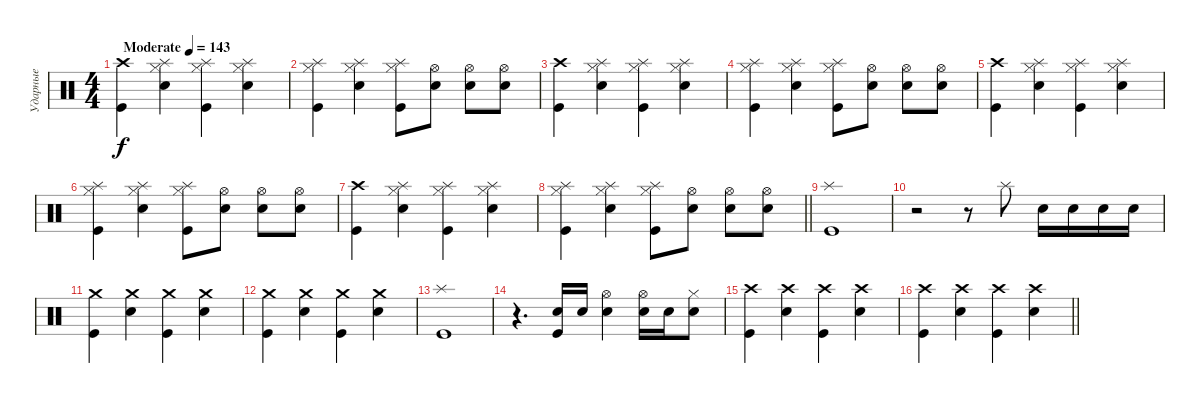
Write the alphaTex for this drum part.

\track ("Ударные" "Ударные") {instrument percussion}
\staff {score}
\articulation defaults
\ts (4 4)
\tempo (143 "Moderate")
\clef neutral
\ks c
("Crash high (hit)" "Kick (hit)").4{dy f} ("Splash (hit)" "Hi-Hat (closed)" "Snare (hit) 2").4 ("Splash (hit)" "Hi-Hat (closed)" "Kick (hit)").4 ("Splash (hit)" "Hi-Hat (closed)" "Snare (hit) 2").4 |
("Splash (hit)" "Hi-Hat (closed)" "Kick (hit)").4 ("Splash (hit)" "Hi-Hat (closed)" "Snare (hit) 2").4 ("Splash (hit)" "Hi-Hat (closed)" "Kick (hit)").8 ("Hi-Hat (open)" "Snare (hit) 2").8 ("Hi-Hat (open)" "Snare (hit) 2").8 ("Hi-Hat (open)" "Snare (hit) 2").8 |
("Crash high (hit)" "Kick (hit)").4 ("Splash (hit)" "Hi-Hat (closed)" "Snare (hit) 2").4 ("Splash (hit)" "Hi-Hat (closed)" "Kick (hit)").4 ("Splash (hit)" "Hi-Hat (closed)" "Snare (hit) 2").4 |
("Splash (hit)" "Hi-Hat (closed)" "Kick (hit)").4 ("Splash (hit)" "Hi-Hat (closed)" "Snare (hit) 2").4 ("Splash (hit)" "Hi-Hat (closed)" "Kick (hit)").8 ("Hi-Hat (open)" "Snare (hit) 2").8 ("Hi-Hat (open)" "Snare (hit) 2").8 ("Hi-Hat (open)" "Snare (hit) 2").8 |
("Crash high (hit)" "Kick (hit)").4 ("Splash (hit)" "Hi-Hat (closed)" "Snare (hit) 2").4 ("Splash (hit)" "Hi-Hat (closed)" "Kick (hit)").4 ("Splash (hit)" "Hi-Hat (closed)" "Snare (hit) 2").4 |
("Splash (hit)" "Hi-Hat (closed)" "Kick (hit)").4 ("Splash (hit)" "Hi-Hat (closed)" "Snare (hit) 2").4 ("Splash (hit)" "Hi-Hat (closed)" "Kick (hit)").8 ("Hi-Hat (open)" "Snare (hit) 2").8 ("Hi-Hat (open)" "Snare (hit) 2").8 ("Hi-Hat (open)" "Snare (hit) 2").8 |
("Crash high (hit)" "Kick (hit)").4 ("Splash (hit)" "Hi-Hat (closed)" "Snare (hit) 2").4 ("Splash (hit)" "Hi-Hat (closed)" "Kick (hit)").4 ("Splash (hit)" "Hi-Hat (closed)" "Snare (hit) 2").4 |
\barLineRight lightlight
("Splash (hit)" "Hi-Hat (closed)" "Kick (hit)").4 ("Splash (hit)" "Hi-Hat (closed)" "Snare (hit) 2").4 ("Splash (hit)" "Hi-Hat (closed)" "Kick (hit)").8 ("Hi-Hat (open)" "Snare (hit) 2").8 ("Hi-Hat (open)" "Snare (hit) 2").8 ("Hi-Hat (open)" "Snare (hit) 2").8 |
("Splash (hit)" "Kick (hit)").1 |
r.2 r.8 "Splash (hit)".8 "Snare (hit) 2".16 "Snare (hit) 2".16 "Snare (hit) 2".16 "Snare (hit) 2".16 |
("Crash medium (hit)" "Kick (hit)").4 ("Crash medium (hit)" "Snare (hit) 2").4 ("Crash medium (hit)" "Kick (hit)").4 ("Crash medium (hit)" "Snare (hit) 2").4 |
("Crash medium (hit)" "Kick (hit)").4 ("Crash medium (hit)" "Snare (hit) 2").4 ("Crash medium (hit)" "Kick (hit)").4 ("Crash medium (hit)" "Snare (hit) 2").4 |
("Splash (hit)" "Kick (hit)").1 |
r.4{d} ("Snare (hit) 2" "Kick (hit)").16 "Snare (hit) 2".16 ("Hi-Hat (open)" "Snare (hit) 2").4 ("Hi-Hat (open)" "Snare (hit) 2").16 "Snare (hit) 2".16 ("Hi-Hat (closed)" "Snare (hit) 2").8 |
("Crash high (hit)" "Kick (hit)").4 ("Crash high (hit)" "Snare (hit) 2").4 ("Crash high (hit)" "Kick (hit)").4 ("Crash high (hit)" "Snare (hit) 2").4 |
\barLineRight lightlight
("Crash high (hit)" "Kick (hit)").4 ("Crash high (hit)" "Snare (hit) 2").4 ("Crash high (hit)" "Kick (hit)").4 ("Crash high (hit)" "Snare (hit) 2").4
